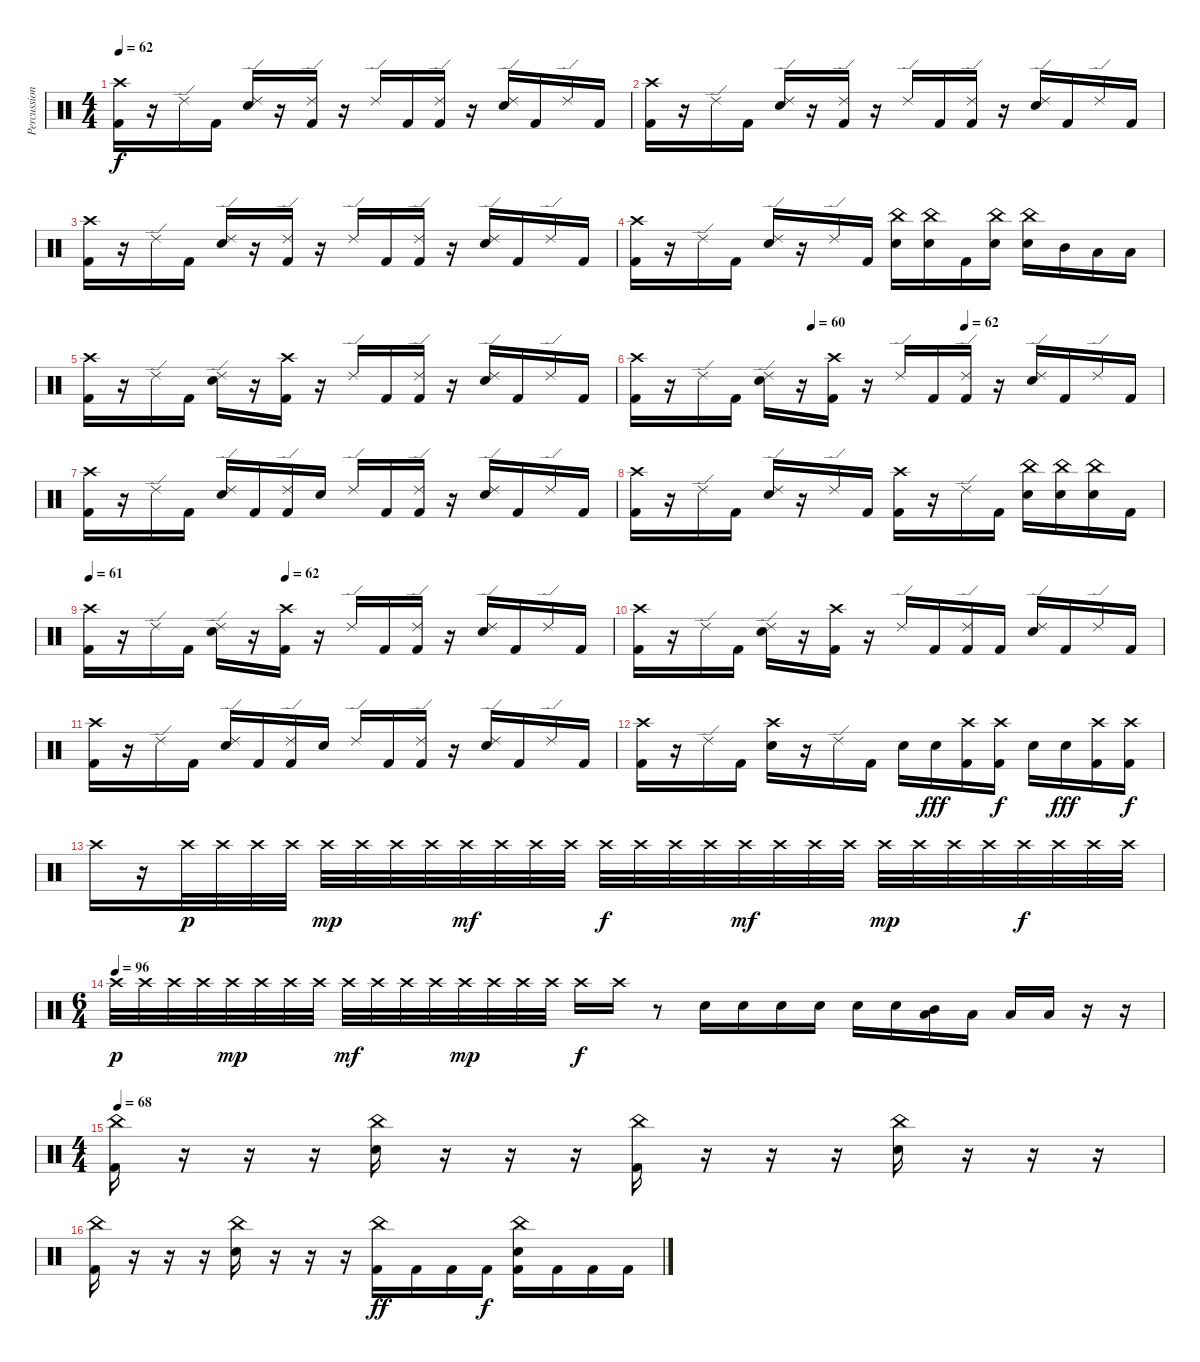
\track ("Percussion" "Percussion") {instrument percussion}
\staff {score}
\articulation defaults
\ts (4 4)
\tempo 62
\clef neutral
\ks c
("Crash high (hit)" "Kick (hit) 2").16{dy f} r.16 "Ride (edge) 2".16 "Kick (hit) 2".16 ("Ride (edge) 2" "Snare (hit) 2").16 r.16 ("Ride (edge) 2" "Kick (hit) 2").16 r.16 "Ride (edge) 2".16 "Kick (hit) 2".16 ("Ride (edge) 2" "Kick (hit) 2").16 r.16 ("Ride (edge) 2" "Snare (hit) 2").16 "Kick (hit) 2".16 "Ride (edge) 2".16 "Kick (hit) 2".16 |
("Crash high (hit)" "Kick (hit) 2").16 r.16 "Ride (edge) 2".16 "Kick (hit) 2".16 ("Ride (edge) 2" "Snare (hit) 2").16 r.16 ("Ride (edge) 2" "Kick (hit) 2").16 r.16 "Ride (edge) 2".16 "Kick (hit) 2".16 ("Ride (edge) 2" "Kick (hit) 2").16 r.16 ("Ride (edge) 2" "Snare (hit) 2").16 "Kick (hit) 2".16 "Ride (edge) 2".16 "Kick (hit) 2".16 |
("Crash high (hit)" "Kick (hit) 2").16 r.16 "Ride (edge) 2".16 "Kick (hit) 2".16 ("Ride (edge) 2" "Snare (hit) 2").16 r.16 ("Ride (edge) 2" "Kick (hit) 2").16 r.16 "Ride (edge) 2".16 "Kick (hit) 2".16 ("Ride (edge) 2" "Kick (hit) 2").16 r.16 ("Ride (edge) 2" "Snare (hit) 2").16 "Kick (hit) 2".16 "Ride (edge) 2".16 "Kick (hit) 2".16 |
("Crash high (hit)" "Kick (hit) 2").16 r.16 "Ride (edge) 2".16 "Kick (hit) 2".16 ("Ride (edge) 2" "Snare (hit) 2").16 r.16 "Ride (edge) 2".16 "Kick (hit) 2".16 ("China (hit)" "Snare (hit) 2").16 ("China (hit)" "Snare (hit) 2").16 "Kick (hit) 2".16 ("China (hit)" "Snare (hit) 2").16 ("China (hit)" "Snare (hit) 2").16 "Mid Tom (hit)".16 "Low Tom (hit)".16 "Low Floor Tom (hit)".16 |
("Crash high (hit)" "Kick (hit) 2").16 r.16 "Ride (edge) 2".16 "Kick (hit) 2".16 ("Ride (edge) 2" "Snare (hit) 2").16 r.16 ("Crash high (hit)" "Kick (hit) 2").16 r.16 "Ride (edge) 2".16 "Kick (hit) 2".16 ("Ride (edge) 2" "Kick (hit) 2").16 r.16 ("Ride (edge) 2" "Snare (hit) 2").16 "Kick (hit) 2".16 "Ride (edge) 2".16 "Kick (hit) 2".16 |
\tempo (60 0.3333333333333333)
\tempo (62 0.625)
("Crash high (hit)" "Kick (hit) 2").16 r.16 "Ride (edge) 2".16 "Kick (hit) 2".16 ("Ride (edge) 2" "Snare (hit) 2").16 r.16 ("Crash high (hit)" "Kick (hit) 2").16 r.16 "Ride (edge) 2".16 "Kick (hit) 2".16 ("Ride (edge) 2" "Kick (hit) 2").16 r.16 ("Ride (edge) 2" "Snare (hit) 2").16 "Kick (hit) 2".16 "Ride (edge) 2".16 "Kick (hit) 2".16 |
("Crash high (hit)" "Kick (hit) 2").16 r.16 "Ride (edge) 2".16 "Kick (hit) 2".16 ("Ride (edge) 2" "Snare (hit) 2").16 "Kick (hit) 2".16 ("Ride (edge) 2" "Kick (hit) 2").16 "Snare (hit) 2".16 "Ride (edge) 2".16 "Kick (hit) 2".16 ("Ride (edge) 2" "Kick (hit) 2").16 r.16 ("Ride (edge) 2" "Snare (hit) 2").16 "Kick (hit) 2".16 "Ride (edge) 2".16 "Kick (hit) 2".16 |
("Crash high (hit)" "Kick (hit) 2").16 r.16 "Ride (edge) 2".16 "Kick (hit) 2".16 ("Ride (edge) 2" "Snare (hit) 2").16 r.16 "Ride (edge) 2".16 "Kick (hit) 2".16 ("Crash high (hit)" "Kick (hit) 2").16 r.16 "Ride (edge) 2".16 "Kick (hit) 2".16 ("China (hit)" "Snare (hit) 2").16 ("China (hit)" "Snare (hit) 2").16 ("China (hit)" "Snare (hit) 2").16 "Kick (hit) 2".16 |
\tempo 61
\tempo (62 0.375)
("Crash high (hit)" "Kick (hit) 2").16 r.16 "Ride (edge) 2".16 "Kick (hit) 2".16 ("Ride (edge) 2" "Snare (hit) 2").16 r.16 ("Crash high (hit)" "Kick (hit) 2").16 r.16 "Ride (edge) 2".16 "Kick (hit) 2".16 ("Ride (edge) 2" "Kick (hit) 2").16 r.16 ("Ride (edge) 2" "Snare (hit) 2").16 "Kick (hit) 2".16 "Ride (edge) 2".16 "Kick (hit) 2".16 |
("Crash high (hit)" "Kick (hit) 2").16 r.16 "Ride (edge) 2".16 "Kick (hit) 2".16 ("Ride (edge) 2" "Snare (hit) 2").16 r.16 ("Crash high (hit)" "Kick (hit) 2").16 r.16 "Ride (edge) 2".16 "Kick (hit) 2".16 ("Ride (edge) 2" "Kick (hit) 2").16 "Kick (hit) 2".16 ("Ride (edge) 2" "Snare (hit) 2").16 "Kick (hit) 2".16 "Ride (edge) 2".16 "Kick (hit) 2".16 |
("Crash high (hit)" "Kick (hit) 2").16 r.16 "Ride (edge) 2".16 "Kick (hit) 2".16 ("Ride (edge) 2" "Snare (hit) 2").16 "Kick (hit) 2".16 ("Ride (edge) 2" "Kick (hit) 2").16 "Snare (hit) 2".16 "Ride (edge) 2".16 "Kick (hit) 2".16 ("Ride (edge) 2" "Kick (hit) 2").16 r.16 ("Ride (edge) 2" "Snare (hit) 2").16 "Kick (hit) 2".16 "Ride (edge) 2".16 "Kick (hit) 2".16 |
("Crash high (hit)" "Kick (hit) 2").16 r.16 "Ride (edge) 2".16 "Kick (hit) 2".16 ("Crash high (hit)" "Snare (hit) 2").16 r.16 "Ride (edge) 2".16 "Kick (hit) 2".16 "Snare (hit) 2".16 "Snare (hit) 2".16{dy fff} ("Crash high (hit)" "Kick (hit) 2").16 ("Crash high (hit)" "Kick (hit) 2").16{dy f} "Snare (hit) 2".16 "Snare (hit) 2".16{dy fff} ("Crash high (hit)" "Kick (hit) 2").16 ("Crash high (hit)" "Kick (hit) 2").16{dy f} |
"Crash high (hit)".16 r.16 "Crash high (hit)".32{dy p} "Crash high (hit)".32 "Crash high (hit)".32 "Crash high (hit)".32 "Crash high (hit)".32{dy mp} "Crash high (hit)".32 "Crash high (hit)".32 "Crash high (hit)".32 "Crash high (hit)".32{dy mf} "Crash high (hit)".32 "Crash high (hit)".32 "Crash high (hit)".32 "Crash high (hit)".32{dy f} "Crash high (hit)".32 "Crash high (hit)".32 "Crash high (hit)".32 "Crash high (hit)".32{dy mf} "Crash high (hit)".32 "Crash high (hit)".32 "Crash high (hit)".32 "Crash high (hit)".32{dy mp} "Crash high (hit)".32 "Crash high (hit)".32 "Crash high (hit)".32 "Crash high (hit)".32{dy f} "Crash high (hit)".32 "Crash high (hit)".32 "Crash high (hit)".32 |
\ts (6 4)
\tempo (96)
"Crash high (hit)".32{dy p} "Crash high (hit)".32 "Crash high (hit)".32 "Crash high (hit)".32 "Crash high (hit)".32{dy mp} "Crash high (hit)".32 "Crash high (hit)".32 "Crash high (hit)".32 "Crash high (hit)".32{dy mf} "Crash high (hit)".32 "Crash high (hit)".32 "Crash high (hit)".32 "Crash high (hit)".32{dy mp} "Crash high (hit)".32 "Crash high (hit)".32 "Crash high (hit)".32 "Crash high (hit)".16{dy f} "Crash high (hit)".16 r.8 "Snare (hit) 2".16 "Snare (hit) 2".16 "Snare (hit) 2".16 "Snare (hit) 2".16 "Snare (hit) 2".16 "Snare (hit) 2".16 ("Mid Tom (hit)" "Low Tom (hit)").16 "Low Tom (hit)".16 "Low Floor Tom (hit)".16 "Low Floor Tom (hit)".16 r.16 r.16 |
\ts (4 4)
\tempo 68
("China (hit)" "Kick (hit) 2").16 r.16 r.16 r.16 ("China (hit)" "Snare (hit) 2").16 r.16 r.16 r.16 ("China (hit)" "Kick (hit) 2").16 r.16 r.16 r.16 ("China (hit)" "Snare (hit) 2").16 r.16 r.16 r.16 |
("China (hit)" "Kick (hit) 2").16 r.16 r.16 r.16 ("China (hit)" "Snare (hit) 2").16 r.16 r.16 r.16 ("China (hit)" "Kick (hit) 2").16{dy ff} "Kick (hit) 2".16 "Kick (hit) 2".16 "Kick (hit) 2".16{dy f} ("China (hit)" "Snare (hit) 2" "Kick (hit) 2").16 "Kick (hit) 2".16 "Kick (hit) 2".16 "Kick (hit) 2".16
